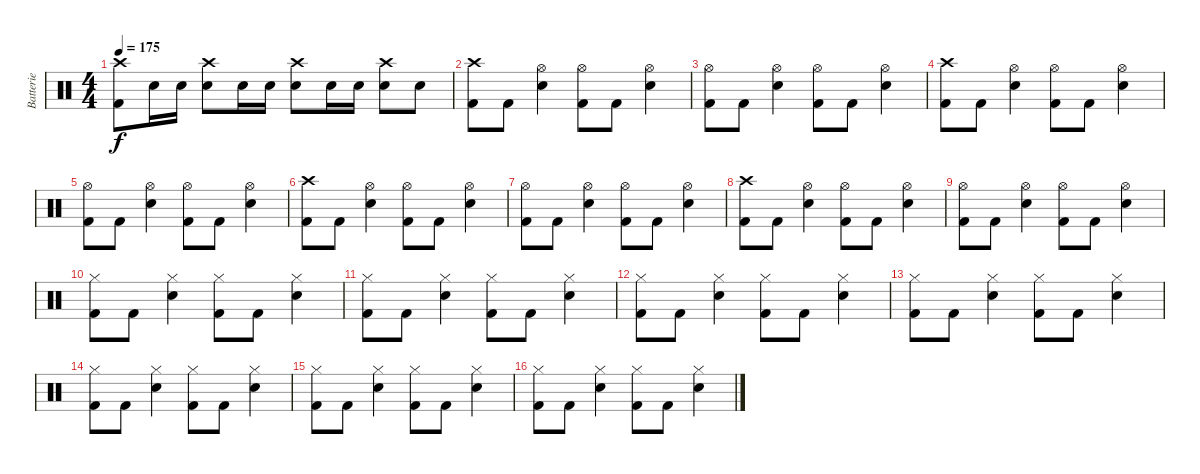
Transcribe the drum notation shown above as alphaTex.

\track ("Batterie" "Batterie") {instrument percussion}
\staff {score}
\articulation defaults
\ts (4 4)
\tempo 175
\clef neutral
\ks c
("Crash high (hit)" "Kick (hit) 2").8{dy f} "Electric Snare (hit)".16 "Electric Snare (hit)".16 ("Crash high (hit)" "Electric Snare (hit)").8 "Electric Snare (hit)".16 "Electric Snare (hit)".16 ("Crash high (hit)" "Electric Snare (hit)").8 "Electric Snare (hit)".16 "Electric Snare (hit)".16 ("Crash high (hit)" "Electric Snare (hit)").8 "Electric Snare (hit)".8 |
("Crash high (hit)" "Kick (hit) 2").8 "Kick (hit) 2".8 ("Hi-Hat (open)" "Electric Snare (hit)").4 ("Hi-Hat (open)" "Kick (hit) 2").8 "Kick (hit) 2".8 ("Hi-Hat (open)" "Electric Snare (hit)").4 |
("Hi-Hat (open)" "Kick (hit) 2").8 "Kick (hit) 2".8 ("Hi-Hat (open)" "Electric Snare (hit)").4 ("Hi-Hat (open)" "Kick (hit) 2").8 "Kick (hit) 2".8 ("Hi-Hat (open)" "Electric Snare (hit)").4 |
("Crash high (hit)" "Kick (hit) 2").8 "Kick (hit) 2".8 ("Hi-Hat (open)" "Electric Snare (hit)").4 ("Hi-Hat (open)" "Kick (hit) 2").8 "Kick (hit) 2".8 ("Hi-Hat (open)" "Electric Snare (hit)").4 |
("Hi-Hat (open)" "Kick (hit) 2").8 "Kick (hit) 2".8 ("Hi-Hat (open)" "Electric Snare (hit)").4 ("Hi-Hat (open)" "Kick (hit) 2").8 "Kick (hit) 2".8 ("Hi-Hat (open)" "Electric Snare (hit)").4 |
("Crash high (hit)" "Kick (hit) 2").8 "Kick (hit) 2".8 ("Hi-Hat (open)" "Electric Snare (hit)").4 ("Hi-Hat (open)" "Kick (hit) 2").8 "Kick (hit) 2".8 ("Hi-Hat (open)" "Electric Snare (hit)").4 |
("Hi-Hat (open)" "Kick (hit) 2").8 "Kick (hit) 2".8 ("Hi-Hat (open)" "Electric Snare (hit)").4 ("Hi-Hat (open)" "Kick (hit) 2").8 "Kick (hit) 2".8 ("Hi-Hat (open)" "Electric Snare (hit)").4 |
("Crash high (hit)" "Kick (hit) 2").8 "Kick (hit) 2".8 ("Hi-Hat (open)" "Electric Snare (hit)").4 ("Hi-Hat (open)" "Kick (hit) 2").8 "Kick (hit) 2".8 ("Hi-Hat (open)" "Electric Snare (hit)").4 |
("Hi-Hat (open)" "Kick (hit) 2").8 "Kick (hit) 2".8 ("Hi-Hat (open)" "Electric Snare (hit)").4 ("Hi-Hat (open)" "Kick (hit) 2").8 "Kick (hit) 2".8 ("Hi-Hat (open)" "Electric Snare (hit)").4 |
("Hi-Hat (closed)" "Kick (hit) 2").8 "Kick (hit) 2".8 ("Hi-Hat (closed)" "Electric Snare (hit)").4 ("Hi-Hat (closed)" "Kick (hit) 2").8 "Kick (hit) 2".8 ("Hi-Hat (closed)" "Electric Snare (hit)").4 |
("Hi-Hat (closed)" "Kick (hit) 2").8 "Kick (hit) 2".8 ("Hi-Hat (closed)" "Electric Snare (hit)").4 ("Hi-Hat (closed)" "Kick (hit) 2").8 "Kick (hit) 2".8 ("Hi-Hat (closed)" "Electric Snare (hit)").4 |
("Hi-Hat (closed)" "Kick (hit) 2").8 "Kick (hit) 2".8 ("Hi-Hat (closed)" "Electric Snare (hit)").4 ("Hi-Hat (closed)" "Kick (hit) 2").8 "Kick (hit) 2".8 ("Hi-Hat (closed)" "Electric Snare (hit)").4 |
("Hi-Hat (closed)" "Kick (hit) 2").8 "Kick (hit) 2".8 ("Hi-Hat (closed)" "Electric Snare (hit)").4 ("Hi-Hat (closed)" "Kick (hit) 2").8 "Kick (hit) 2".8 ("Hi-Hat (closed)" "Electric Snare (hit)").4 |
("Hi-Hat (closed)" "Kick (hit) 2").8 "Kick (hit) 2".8 ("Hi-Hat (closed)" "Electric Snare (hit)").4 ("Hi-Hat (closed)" "Kick (hit) 2").8 "Kick (hit) 2".8 ("Hi-Hat (closed)" "Electric Snare (hit)").4 |
("Hi-Hat (closed)" "Kick (hit) 2").8 "Kick (hit) 2".8 ("Hi-Hat (closed)" "Electric Snare (hit)").4 ("Hi-Hat (closed)" "Kick (hit) 2").8 "Kick (hit) 2".8 ("Hi-Hat (closed)" "Electric Snare (hit)").4 |
("Hi-Hat (closed)" "Kick (hit) 2").8 "Kick (hit) 2".8 ("Hi-Hat (closed)" "Electric Snare (hit)").4 ("Hi-Hat (closed)" "Kick (hit) 2").8 "Kick (hit) 2".8 ("Hi-Hat (closed)" "Electric Snare (hit)").4
